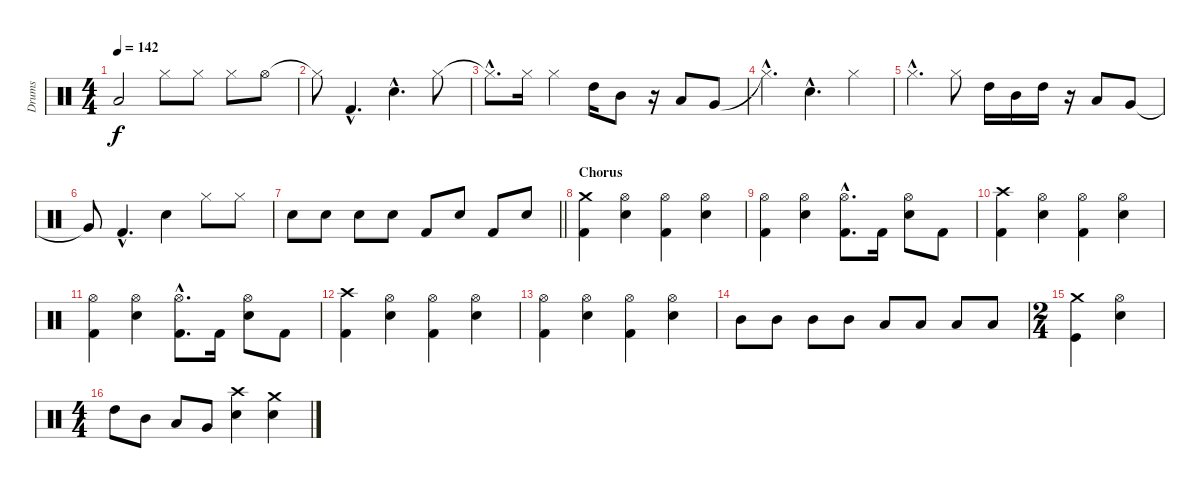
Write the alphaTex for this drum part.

\track ("Drums" "Drums") {instrument percussion}
\staff {score}
\articulation defaults
\ts (4 4)
\tempo 142
\clef neutral
\ks c "Low Tom (hit)".2{dy f} "Hi-Hat (closed)".8 "Hi-Hat (closed)".8 "Hi-Hat (closed)".8 "Hi-Hat (open)".8
|
"Hi-Hat (closed)"{t}.8 "Kick (hit) 2"{hac}.4{d} "Snare (hit) 2"{hac}.4{d} "Hi-Hat (closed)".8 |
"Hi-Hat (closed)"{hac t}.8{d} "Hi-Hat (closed)".16 "Hi-Hat (closed)".4 "High Tom (hit)".16 "Mid Tom (hit)".8 r.16 "Low Tom (hit)".8 "Very Low Tom (hit)".8 |
"Hi-Hat (closed)"{hac t}.4{d} "Snare (hit) 2"{hac}.4{d} "Hi-Hat (closed)".4 |
"Hi-Hat (closed)"{hac}.4{d} "Hi-Hat (closed)".8 "High Tom (hit)".16 "Mid Tom (hit)".16 "High Tom (hit)".16 r.16 "Low Tom (hit)".8 "Very Low Tom (hit)".8 |
"Very Low Tom (hit)"{t}.8 "Kick (hit) 2"{hac}.4{d} "Snare (hit) 2".4 "Hi-Hat (closed)".8 "Hi-Hat (closed)".8 |
\barLineRight lightlight "Snare (hit) 2".8 "Snare (hit) 2".8 "Snare (hit) 2".8 "Snare (hit) 2".8 "Kick (hit) 2".8 "Snare (hit) 2".8 "Kick (hit) 2".8 "Snare (hit) 2".8
|
\section ("" "Chorus")
("Kick (hit) 2" "Crash medium (hit)").4 ("Snare (hit) 2" "Hi-Hat (open)").4 ("Kick (hit) 2" "Hi-Hat (open)").4 ("Snare (hit) 2" "Hi-Hat (open)").4 |
("Kick (hit) 2" "Hi-Hat (open)").4 ("Snare (hit) 2" "Hi-Hat (open)").4 ("Kick (hit) 2"{hac} "Hi-Hat (open)"{hac}).8{d} "Kick (hit) 2".16 ("Snare (hit) 2" "Hi-Hat (open)").8 "Kick (hit) 2".8 |
("Kick (hit) 2" "Crash high (hit)").4 ("Snare (hit) 2" "Hi-Hat (open)").4 ("Kick (hit) 2" "Hi-Hat (open)").4 ("Snare (hit) 2" "Hi-Hat (open)").4 |
("Kick (hit) 2" "Hi-Hat (open)").4 ("Snare (hit) 2" "Hi-Hat (open)").4 ("Kick (hit) 2"{hac} "Hi-Hat (open)"{hac}).8{d} "Kick (hit) 2".16 ("Snare (hit) 2" "Hi-Hat (open)").8 "Kick (hit) 2".8 |
("Kick (hit) 2" "Crash high (hit)").4 ("Snare (hit) 2" "Hi-Hat (open)").4 ("Kick (hit) 2" "Hi-Hat (open)").4 ("Snare (hit) 2" "Hi-Hat (open)").4 |
("Kick (hit) 2" "Hi-Hat (open)").4 ("Snare (hit) 2" "Hi-Hat (open)").4 ("Kick (hit) 2" "Hi-Hat (open)").4 ("Snare (hit) 2" "Hi-Hat (open)").4 |
"Mid Tom (hit)".8 "Mid Tom (hit)".8 "Mid Tom (hit)".8 "Mid Tom (hit)".8 "Low Tom (hit)".8 "Low Tom (hit)".8 "Low Tom (hit)".8 "Low Tom (hit)".8 |
\ts (2 4)
("Kick (hit)" "Crash medium (hit)").4 ("Snare (hit) 2" "Hi-Hat (open)").4 |
\ts (4 4)
"High Tom (hit)".8 "Mid Tom (hit)".8 "Low Tom (hit)".8 "Very Low Tom (hit)".8 ("Snare (hit) 2" "Crash high (hit)").4 ("Snare (hit) 2" "Crash medium (hit)").4
